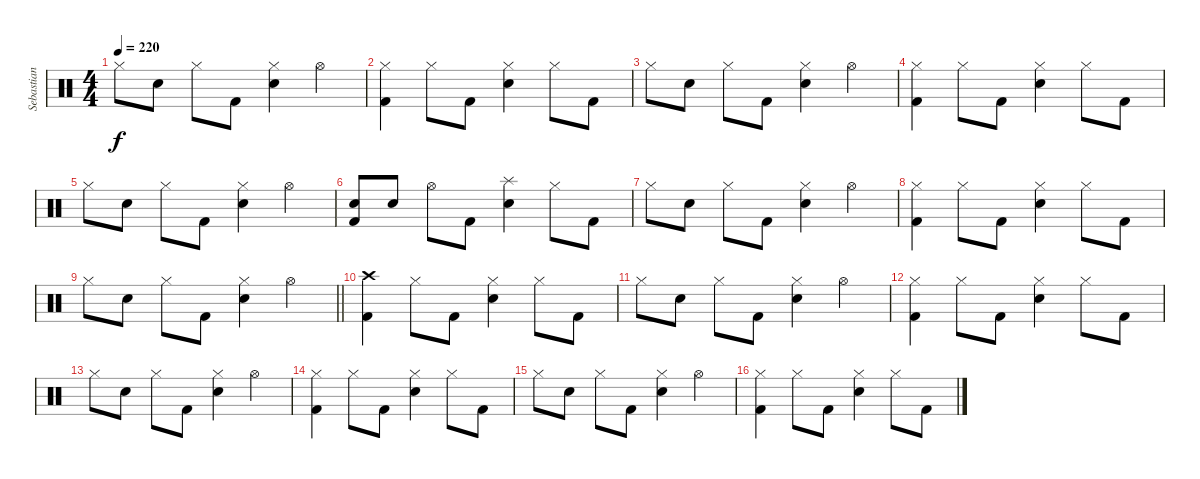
\track ("Sebastian" "Sebastian") {instrument percussion}
\staff {score}
\articulation defaults
\ts (4 4)
\tempo 220
\clef neutral
\ks c "Hi-Hat (closed)".8{dy f} "Snare (hit) 2".8 "Hi-Hat (closed)".8 "Kick (hit) 2".8
("Hi-Hat (closed)" "Snare (hit) 2").4 "Hi-Hat (open)".4 |
("Hi-Hat (closed)" "Kick (hit) 2").4 "Hi-Hat (closed)".8 "Kick (hit) 2".8 ("Hi-Hat (closed)" "Snare (hit) 2").4 "Hi-Hat (closed)".8 "Kick (hit) 2".8 |
"Hi-Hat (closed)".8 "Snare (hit) 2".8 "Hi-Hat (closed)".8 "Kick (hit) 2".8 ("Hi-Hat (closed)" "Snare (hit) 2").4 "Hi-Hat (open)".4 |
("Hi-Hat (closed)" "Kick (hit) 2").4 "Hi-Hat (closed)".8 "Kick (hit) 2".8 ("Hi-Hat (closed)" "Snare (hit) 2").4 "Hi-Hat (closed)".8 "Kick (hit) 2".8 |
"Hi-Hat (closed)".8 "Snare (hit) 2".8 "Hi-Hat (closed)".8 "Kick (hit) 2".8 ("Hi-Hat (closed)" "Snare (hit) 2").4 "Hi-Hat (open)".4 |
("Snare (hit) 2" "Kick (hit) 2").8 "Snare (hit) 2".8 "Hi-Hat (open)".8 "Kick (hit) 2".8 ("Splash (hit)" "Snare (hit) 2").4 "Hi-Hat (closed)".8 "Kick (hit) 2".8 |
"Hi-Hat (closed)".8 "Snare (hit) 2".8 "Hi-Hat (closed)".8 "Kick (hit) 2".8 ("Hi-Hat (closed)" "Snare (hit) 2").4 "Hi-Hat (open)".4 |
("Hi-Hat (closed)" "Kick (hit) 2").4 "Hi-Hat (closed)".8 "Kick (hit) 2".8 ("Hi-Hat (closed)" "Snare (hit) 2").4 "Hi-Hat (closed)".8 "Kick (hit) 2".8 |
\barLineRight lightlight "Hi-Hat (closed)".8 "Snare (hit) 2".8 "Hi-Hat (closed)".8 "Kick (hit) 2".8
("Hi-Hat (closed)" "Snare (hit) 2").4 "Hi-Hat (open)".4 |
("Crash high (hit)" "Kick (hit) 2").4 "Hi-Hat (closed)".8 "Kick (hit) 2".8 ("Hi-Hat (closed)" "Snare (hit) 2").4 "Hi-Hat (closed)".8 "Kick (hit) 2".8 |
"Hi-Hat (closed)".8 "Snare (hit) 2".8 "Hi-Hat (closed)".8 "Kick (hit) 2".8 ("Hi-Hat (closed)" "Snare (hit) 2").4 "Hi-Hat (open)".4 |
("Hi-Hat (closed)" "Kick (hit) 2").4 "Hi-Hat (closed)".8 "Kick (hit) 2".8 ("Hi-Hat (closed)" "Snare (hit) 2").4 "Hi-Hat (closed)".8 "Kick (hit) 2".8 |
"Hi-Hat (closed)".8 "Snare (hit) 2".8 "Hi-Hat (closed)".8 "Kick (hit) 2".8 ("Hi-Hat (closed)" "Snare (hit) 2").4 "Hi-Hat (open)".4 |
("Hi-Hat (closed)" "Kick (hit) 2").4 "Hi-Hat (closed)".8 "Kick (hit) 2".8 ("Hi-Hat (closed)" "Snare (hit) 2").4 "Hi-Hat (closed)".8 "Kick (hit) 2".8 |
"Hi-Hat (closed)".8 "Snare (hit) 2".8 "Hi-Hat (closed)".8 "Kick (hit) 2".8 ("Hi-Hat (closed)" "Snare (hit) 2").4 "Hi-Hat (open)".4 |
("Hi-Hat (closed)" "Kick (hit) 2").4 "Hi-Hat (closed)".8 "Kick (hit) 2".8 ("Hi-Hat (closed)" "Snare (hit) 2").4 "Hi-Hat (closed)".8 "Kick (hit) 2".8
